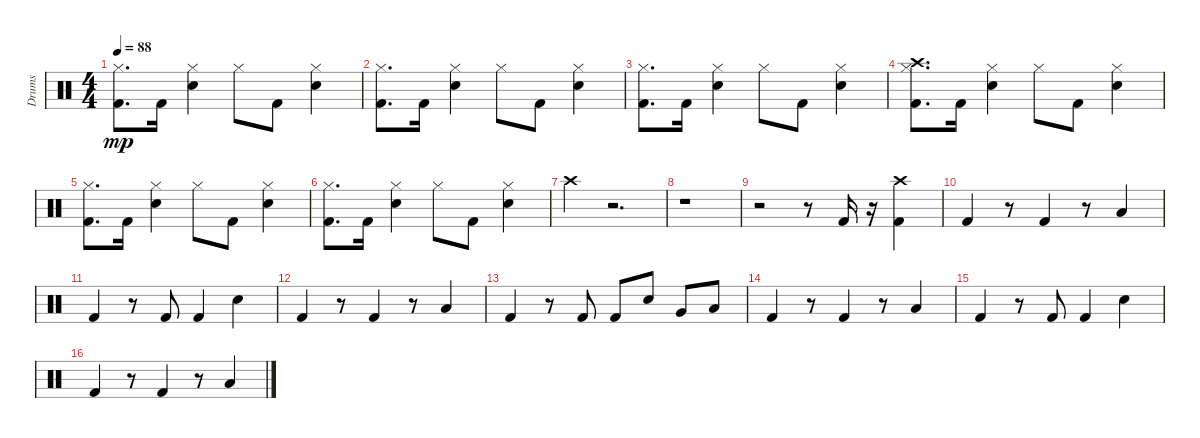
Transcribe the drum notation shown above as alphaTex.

\track ("Drums" "Drums") {instrument percussion}
\staff {score}
\articulation defaults
\ts (4 4)
\tempo 88
\clef neutral
\ks c
("Hi-Hat (closed)" "Kick (hit) 2").8{d dy mp} "Kick (hit) 2".16 ("Snare (hit) 2" "Hi-Hat (closed)").4 "Hi-Hat (closed)".8 "Kick (hit) 2".8 ("Snare (hit) 2" "Hi-Hat (closed)").4 |
("Hi-Hat (closed)" "Kick (hit) 2").8{d} "Kick (hit) 2".16 ("Snare (hit) 2" "Hi-Hat (closed)").4 "Hi-Hat (closed)".8 "Kick (hit) 2".8 ("Snare (hit) 2" "Hi-Hat (closed)").4 |
("Hi-Hat (closed)" "Kick (hit) 2").8{d} "Kick (hit) 2".16 ("Snare (hit) 2" "Hi-Hat (closed)").4 "Hi-Hat (closed)".8 "Kick (hit) 2".8 ("Snare (hit) 2" "Hi-Hat (closed)").4 |
("Hi-Hat (closed)" "Kick (hit) 2" "Crash high (hit)").8{d} "Kick (hit) 2".16 ("Snare (hit) 2" "Hi-Hat (closed)").4 "Hi-Hat (closed)".8 "Kick (hit) 2".8 ("Snare (hit) 2" "Hi-Hat (closed)").4 |
("Hi-Hat (closed)" "Kick (hit) 2").8{d} "Kick (hit) 2".16 ("Snare (hit) 2" "Hi-Hat (closed)").4 "Hi-Hat (closed)".8 "Kick (hit) 2".8 ("Snare (hit) 2" "Hi-Hat (closed)").4 |
("Hi-Hat (closed)" "Kick (hit) 2").8{d} "Kick (hit) 2".16 ("Snare (hit) 2" "Hi-Hat (closed)").4 "Hi-Hat (closed)".8 "Kick (hit) 2".8 ("Snare (hit) 2" "Hi-Hat (closed)").4 |
"Crash high (hit)".4 r.2{d} |
r.1 |
r.2 r.8 "Kick (hit) 2".16 r.16 ("Kick (hit) 2" "Crash high (hit)").4 |
"Kick (hit) 2".4 r.8 "Kick (hit) 2".4 r.8 "Low Floor Tom (hit)".4 |
"Kick (hit) 2".4 r.8 "Kick (hit) 2".8 "Kick (hit) 2".4 "Snare (hit) 2".4 |
"Kick (hit) 2".4 r.8 "Kick (hit) 2".4 r.8 "Low Floor Tom (hit)".4 |
"Kick (hit) 2".4 r.8 "Kick (hit) 2".8 "Kick (hit) 2".8 "Snare (hit) 2".8 "Very Low Tom (hit)".8 "Low Floor Tom (hit)".8 |
"Kick (hit) 2".4 r.8 "Kick (hit) 2".4 r.8 "Low Floor Tom (hit)".4 |
"Kick (hit) 2".4 r.8 "Kick (hit) 2".8 "Kick (hit) 2".4 "Snare (hit) 2".4 |
"Kick (hit) 2".4 r.8 "Kick (hit) 2".4 r.8 "Low Floor Tom (hit)".4
